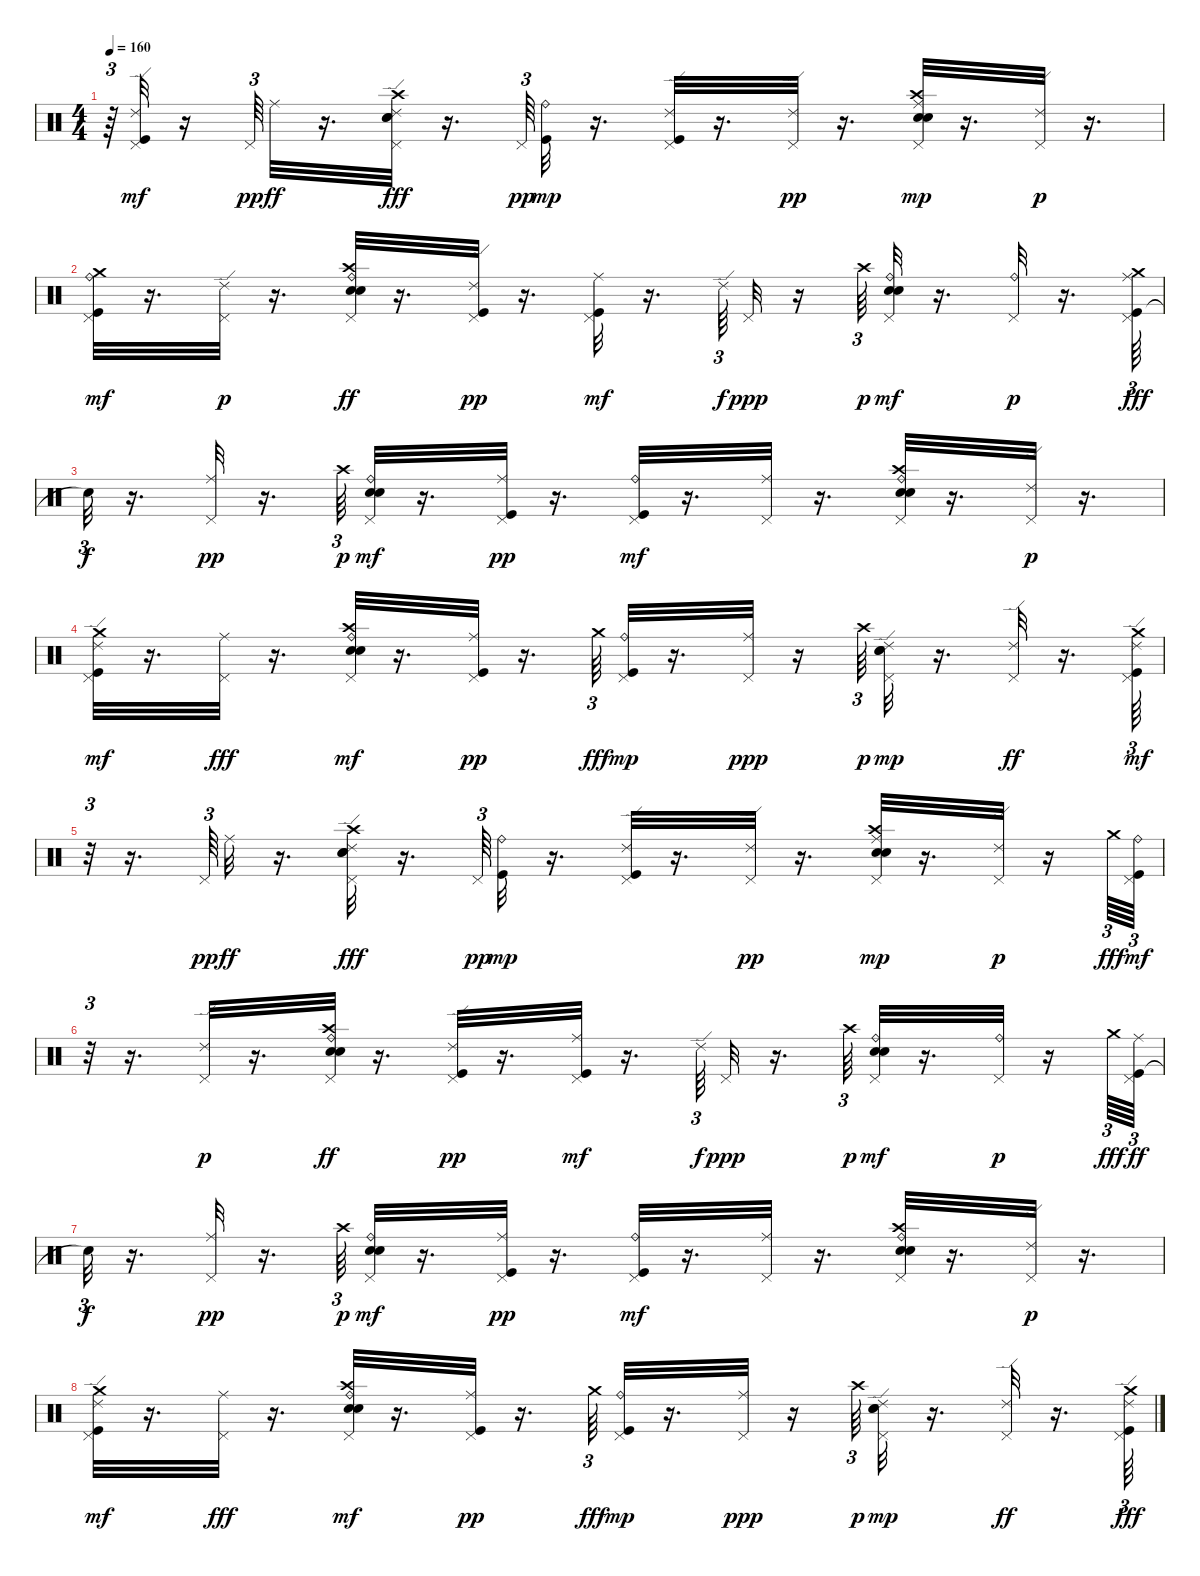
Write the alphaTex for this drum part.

\track "" {instrument percussion}
\staff {score}
\articulation defaults
\ts (4 4)
\tempo 160
\clef neutral
\ks c
r.64{tu (3 2) dy ff} ("Kick (hit)" "Ride (edge) 2" "Pedal Hi-Hat (hit)").32{dy mf} r.16 "Pedal Hi-Hat (hit)".64{tu (3 2) dy pp} "Ride (middle)".32{dy ff} r.16{d} ("Pedal Hi-Hat (hit)" "Electric Snare (hit)" "Crash high (hit)" "Snare (hit) 2" "Ride (edge) 2").32{dy fff} r.16{d} "Pedal Hi-Hat (hit)".64{tu (3 2) dy pp} ("Kick (hit)" "Ride (bell)").32{dy mp} r.16{d} ("Kick (hit)" "Ride (edge) 2" "Pedal Hi-Hat (hit)").32 r.16{d} ("Ride (edge) 2" "Pedal Hi-Hat (hit)").32{dy pp} r.16{d} ("Electric Snare (hit)" "Snare (hit) 2" "Ride (middle)" "Pedal Hi-Hat (hit)" "Crash high (hit)").32{dy mp} r.16{d} ("Ride (edge) 2" "Pedal Hi-Hat (hit)").32{dy p} r.16{d} |
("Crash medium (hit)" "Kick (hit)" "Ride (bell)" "Pedal Hi-Hat (hit)").32{dy mf} r.16{d} ("Ride (edge) 2" "Pedal Hi-Hat (hit)").32{dy p} r.16{d} ("Electric Snare (hit)" "Crash high (hit)" "Snare (hit) 2" "Ride (bell)" "Pedal Hi-Hat (hit)").32{dy ff} r.16{d} ("Kick (hit)" "Ride (edge) 2" "Pedal Hi-Hat (hit)").32{dy pp} r.16{d} ("Kick (hit)" "Ride (middle)" "Pedal Hi-Hat (hit)").32{dy mf} r.16{d} "Ride (edge) 2".64{tu (3 2) dy f} "Pedal Hi-Hat (hit)".32{dy ppp} r.16 "Crash high (hit)".64{tu (3 2) dy p} ("Electric Snare (hit)" "Snare (hit) 2" "Ride (bell)" "Pedal Hi-Hat (hit)").32{dy mf} r.16{d} ("Ride (bell)" "Pedal Hi-Hat (hit)").32{dy p} r.16{d} ("Kick (hit)" "Ride (middle)" "Pedal Hi-Hat (hit)" "Crash medium (hit)").64{tu (3 2) dy fff} |
"Snare (hit)"{t}.32{tu (3 2) dy f} r.16{d} ("Ride (middle)" "Pedal Hi-Hat (hit)").32{dy pp} r.16{d} "Crash high (hit)".64{tu (3 2) dy p} ("Electric Snare (hit)" "Snare (hit) 2" "Ride (bell)" "Pedal Hi-Hat (hit)").32{dy mf} r.16{d} ("Kick (hit)" "Ride (middle)" "Pedal Hi-Hat (hit)").32{dy pp} r.16{d} ("Kick (hit)" "Ride (bell)" "Pedal Hi-Hat (hit)").32{dy mf} r.16{d} ("Pedal Hi-Hat (hit)" "Ride (middle)").32 r.16{d} ("Electric Snare (hit)" "Crash high (hit)" "Snare (hit) 2" "Ride (bell)" "Pedal Hi-Hat (hit)").32 r.16{d} ("Ride (edge) 2" "Pedal Hi-Hat (hit)").32{dy p} r.16{d} |
("Crash medium (hit)" "Kick (hit)" "Ride (edge) 2" "Pedal Hi-Hat (hit)").32{dy mf} r.16{d} ("Pedal Hi-Hat (hit)" "Ride (middle)").32{dy fff} r.16{d} ("Electric Snare (hit)" "Crash high (hit)" "Snare (hit) 2" "Ride (bell)" "Pedal Hi-Hat (hit)").32{dy mf} r.16{d} ("Kick (hit)" "Ride (middle)" "Pedal Hi-Hat (hit)").32{dy pp} r.16{d} "Crash medium (hit)".64{tu (3 2) dy fff} ("Kick (hit)" "Ride (bell)" "Pedal Hi-Hat (hit)").32{dy mp} r.16{d} ("Ride (middle)" "Pedal Hi-Hat (hit)").32{dy ppp} r.16 "Crash high (hit)".64{tu (3 2) dy p} ("Electric Snare (hit)" "Snare (hit) 2" "Ride (edge) 2" "Pedal Hi-Hat (hit)").32{dy mp} r.16{d} ("Pedal Hi-Hat (hit)" "Ride (edge) 2").32{dy ff} r.16{d} ("Crash medium (hit)" "Kick (hit)" "Ride (edge) 2" "Pedal Hi-Hat (hit)").64{tu (3 2) dy mf} |
r.32{tu (3 2)} r.16{d} "Pedal Hi-Hat (hit)".64{tu (3 2) dy pp} "Ride (middle)".32{dy ff} r.16{d} ("Pedal Hi-Hat (hit)" "Electric Snare (hit)" "Crash high (hit)" "Snare (hit) 2" "Ride (edge) 2").32{dy fff} r.16{d} "Pedal Hi-Hat (hit)".64{tu (3 2) dy pp} ("Kick (hit)" "Ride (bell)").32{dy mp} r.16{d} ("Kick (hit)" "Ride (edge) 2" "Pedal Hi-Hat (hit)").32 r.16{d} ("Ride (edge) 2" "Pedal Hi-Hat (hit)").32{dy pp} r.16{d} ("Electric Snare (hit)" "Snare (hit) 2" "Ride (middle)" "Pedal Hi-Hat (hit)" "Crash high (hit)").32{dy mp} r.16{d} ("Ride (edge) 2" "Pedal Hi-Hat (hit)").32{dy p} r.16 "Crash medium (hit)".64{tu (3 2) dy fff} ("Kick (hit)" "Ride (bell)" "Pedal Hi-Hat (hit)").64{tu (3 2) dy mf} |
r.32{tu (3 2)} r.16{d} ("Ride (edge) 2" "Pedal Hi-Hat (hit)").32{dy p} r.16{d} ("Electric Snare (hit)" "Crash high (hit)" "Snare (hit) 2" "Ride (bell)" "Pedal Hi-Hat (hit)").32{dy ff} r.16{d} ("Kick (hit)" "Ride (edge) 2" "Pedal Hi-Hat (hit)").32{dy pp} r.16{d} ("Kick (hit)" "Ride (middle)" "Pedal Hi-Hat (hit)").32{dy mf} r.16{d} "Ride (edge) 2".64{tu (3 2) dy f} "Pedal Hi-Hat (hit)".32{dy ppp} r.16{d} "Crash high (hit)".64{tu (3 2) dy p} ("Electric Snare (hit)" "Snare (hit) 2" "Ride (bell)" "Pedal Hi-Hat (hit)").32{dy mf} r.16{d} ("Ride (bell)" "Pedal Hi-Hat (hit)").32{dy p} r.16 "Crash medium (hit)".64{tu (3 2) dy fff} ("Kick (hit)" "Ride (middle)" "Pedal Hi-Hat (hit)").64{tu (3 2) dy ff} |
"Snare (hit)"{t}.32{tu (3 2) dy f} r.16{d} ("Ride (middle)" "Pedal Hi-Hat (hit)").32{dy pp} r.16{d} "Crash high (hit)".64{tu (3 2) dy p} ("Electric Snare (hit)" "Snare (hit) 2" "Ride (bell)" "Pedal Hi-Hat (hit)").32{dy mf} r.16{d} ("Kick (hit)" "Ride (middle)" "Pedal Hi-Hat (hit)").32{dy pp} r.16{d} ("Kick (hit)" "Ride (bell)" "Pedal Hi-Hat (hit)").32{dy mf} r.16{d} ("Pedal Hi-Hat (hit)" "Ride (middle)").32 r.16{d} ("Electric Snare (hit)" "Crash high (hit)" "Snare (hit) 2" "Ride (bell)" "Pedal Hi-Hat (hit)").32 r.16{d} ("Ride (edge) 2" "Pedal Hi-Hat (hit)").32{dy p} r.16{d} |
("Crash medium (hit)" "Kick (hit)" "Ride (edge) 2" "Pedal Hi-Hat (hit)").32{dy mf} r.16{d} ("Pedal Hi-Hat (hit)" "Ride (middle)").32{dy fff} r.16{d} ("Electric Snare (hit)" "Crash high (hit)" "Snare (hit) 2" "Ride (bell)" "Pedal Hi-Hat (hit)").32{dy mf} r.16{d} ("Kick (hit)" "Ride (middle)" "Pedal Hi-Hat (hit)").32{dy pp} r.16{d} "Crash medium (hit)".64{tu (3 2) dy fff} ("Kick (hit)" "Ride (bell)" "Pedal Hi-Hat (hit)").32{dy mp} r.16{d} ("Ride (middle)" "Pedal Hi-Hat (hit)").32{dy ppp} r.16 "Crash high (hit)".64{tu (3 2) dy p} ("Electric Snare (hit)" "Snare (hit) 2" "Ride (edge) 2" "Pedal Hi-Hat (hit)").32{dy mp} r.16{d} ("Pedal Hi-Hat (hit)" "Ride (edge) 2").32{dy ff} r.16{d} ("Kick (hit)" "Crash medium (hit)" "Ride (edge) 2" "Pedal Hi-Hat (hit)").64{tu (3 2) dy fff}
